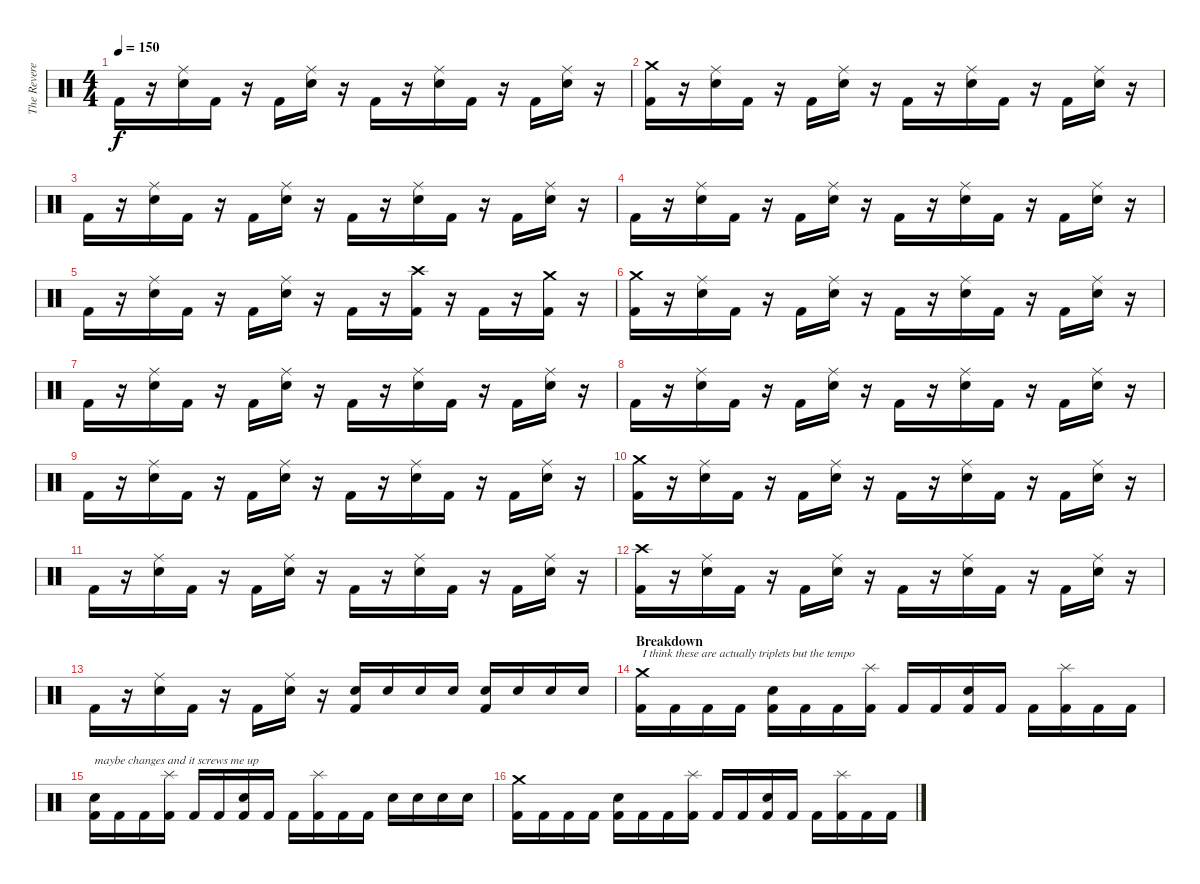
\track ("The Reverend" "The Revere") {instrument percussion}
\staff {score}
\articulation defaults
\ts (4 4)
\tempo 150
\clef neutral
\ks c "Kick (hit) 2".16{dy f}
r.16 ("Ride (middle)" "Electric Snare (hit)").16 "Kick (hit) 2".16 r.16 "Kick (hit) 2".16 ("Ride (middle)" "Electric Snare (hit)").16 r.16 "Kick (hit) 2".16 r.16 ("Ride (middle)" "Electric Snare (hit)").16 "Kick (hit) 2".16 r.16 "Kick (hit) 2".16 ("Ride (middle)" "Electric Snare (hit)").16 r.16 |
("Crash medium (hit)" "Kick (hit) 2").16 r.16 ("Ride (middle)" "Electric Snare (hit)").16 "Kick (hit) 2".16 r.16 "Kick (hit) 2".16 ("Ride (middle)" "Electric Snare (hit)").16 r.16 "Kick (hit) 2".16 r.16 ("Ride (middle)" "Electric Snare (hit)").16 "Kick (hit) 2".16 r.16 "Kick (hit) 2".16 ("Ride (middle)" "Electric Snare (hit)").16 r.16 |
"Kick (hit) 2".16 r.16 ("Ride (middle)" "Electric Snare (hit)").16 "Kick (hit) 2".16 r.16 "Kick (hit) 2".16 ("Ride (middle)" "Electric Snare (hit)").16 r.16 "Kick (hit) 2".16 r.16 ("Ride (middle)" "Electric Snare (hit)").16 "Kick (hit) 2".16 r.16 "Kick (hit) 2".16 ("Ride (middle)" "Electric Snare (hit)").16 r.16 |
"Kick (hit) 2".16 r.16 ("Ride (middle)" "Electric Snare (hit)").16 "Kick (hit) 2".16 r.16 "Kick (hit) 2".16 ("Ride (middle)" "Electric Snare (hit)").16 r.16 "Kick (hit) 2".16 r.16 ("Ride (middle)" "Electric Snare (hit)").16 "Kick (hit) 2".16 r.16 "Kick (hit) 2".16 ("Ride (middle)" "Electric Snare (hit)").16 r.16 |
"Kick (hit) 2".16 r.16 ("Ride (middle)" "Electric Snare (hit)").16 "Kick (hit) 2".16 r.16 "Kick (hit) 2".16 ("Ride (middle)" "Electric Snare (hit)").16 r.16 "Kick (hit) 2".16 r.16 ("Crash high (hit)" "Kick (hit) 2").16 r.16 "Kick (hit) 2".16 r.16 ("Crash medium (hit)" "Kick (hit) 2").16 r.16 |
("Crash medium (hit)" "Kick (hit) 2").16 r.16 ("Ride (middle)" "Electric Snare (hit)").16 "Kick (hit) 2".16 r.16 "Kick (hit) 2".16 ("Ride (middle)" "Electric Snare (hit)").16 r.16 "Kick (hit) 2".16 r.16 ("Ride (middle)" "Electric Snare (hit)").16 "Kick (hit) 2".16 r.16 "Kick (hit) 2".16 ("Ride (middle)" "Electric Snare (hit)").16 r.16 |
"Kick (hit) 2".16 r.16 ("Ride (middle)" "Electric Snare (hit)").16 "Kick (hit) 2".16 r.16 "Kick (hit) 2".16 ("Ride (middle)" "Electric Snare (hit)").16 r.16 "Kick (hit) 2".16 r.16 ("Ride (middle)" "Electric Snare (hit)").16 "Kick (hit) 2".16 r.16 "Kick (hit) 2".16 ("Ride (middle)" "Electric Snare (hit)").16 r.16 |
"Kick (hit) 2".16 r.16 ("Ride (middle)" "Electric Snare (hit)").16 "Kick (hit) 2".16 r.16 "Kick (hit) 2".16 ("Ride (middle)" "Electric Snare (hit)").16 r.16 "Kick (hit) 2".16 r.16 ("Ride (middle)" "Electric Snare (hit)").16 "Kick (hit) 2".16 r.16 "Kick (hit) 2".16 ("Ride (middle)" "Electric Snare (hit)").16 r.16 |
"Kick (hit) 2".16 r.16 ("Ride (middle)" "Electric Snare (hit)").16 "Kick (hit) 2".16 r.16 "Kick (hit) 2".16 ("Ride (middle)" "Electric Snare (hit)").16 r.16 "Kick (hit) 2".16 r.16 ("Ride (middle)" "Electric Snare (hit)").16 "Kick (hit) 2".16 r.16 "Kick (hit) 2".16 ("Ride (middle)" "Electric Snare (hit)").16 r.16 |
("Crash medium (hit)" "Kick (hit) 2").16 r.16 ("Ride (middle)" "Electric Snare (hit)").16 "Kick (hit) 2".16 r.16 "Kick (hit) 2".16 ("Ride (middle)" "Electric Snare (hit)").16 r.16 "Kick (hit) 2".16 r.16 ("Ride (middle)" "Electric Snare (hit)").16 "Kick (hit) 2".16 r.16 "Kick (hit) 2".16 ("Ride (middle)" "Electric Snare (hit)").16 r.16 |
"Kick (hit) 2".16 r.16 ("Ride (middle)" "Electric Snare (hit)").16 "Kick (hit) 2".16 r.16 "Kick (hit) 2".16 ("Ride (middle)" "Electric Snare (hit)").16 r.16 "Kick (hit) 2".16 r.16 ("Ride (middle)" "Electric Snare (hit)").16 "Kick (hit) 2".16 r.16 "Kick (hit) 2".16 ("Ride (middle)" "Electric Snare (hit)").16 r.16 |
("Crash high (hit)" "Kick (hit) 2").16 r.16 ("Ride (middle)" "Electric Snare (hit)").16 "Kick (hit) 2".16 r.16 "Kick (hit) 2".16 ("Ride (middle)" "Electric Snare (hit)").16 r.16 "Kick (hit) 2".16 r.16 ("Ride (middle)" "Electric Snare (hit)").16 "Kick (hit) 2".16 r.16 "Kick (hit) 2".16 ("Ride (middle)" "Electric Snare (hit)").16 r.16 |
"Kick (hit) 2".16 r.16 ("Ride (middle)" "Electric Snare (hit)").16 "Kick (hit) 2".16 r.16 "Kick (hit) 2".16 ("Ride (middle)" "Electric Snare (hit)").16 r.16 ("Electric Snare (hit)" "Kick (hit) 2").16 "Electric Snare (hit)".16 "Electric Snare (hit)".16 "Electric Snare (hit)".16 ("Electric Snare (hit)" "Kick (hit) 2").16 "Electric Snare (hit)".16 "Electric Snare (hit)".16 "Electric Snare (hit)".16 |
\section ("" "Breakdown")
("Crash medium (hit)" "Kick (hit) 2").16{txt "I think these are actually triplets but the tempo "} "Kick (hit) 2".16 "Kick (hit) 2".16 "Kick (hit) 2".16 ("Electric Snare (hit)" "Kick (hit) 2").16 "Kick (hit) 2".16 "Kick (hit) 2".16 ("Splash (hit)" "Kick (hit) 2").16 "Kick (hit) 2".16 "Kick (hit) 2".16 ("Electric Snare (hit)" "Kick (hit) 2").16 "Kick (hit) 2".16 "Kick (hit) 2".16 ("Splash (hit)" "Kick (hit) 2").16 "Kick (hit) 2".16 "Kick (hit) 2".16 |
("Electric Snare (hit)" "Kick (hit) 2").16{txt "maybe changes and it screws me up"} "Kick (hit) 2".16 "Kick (hit) 2".16 ("Splash (hit)" "Kick (hit) 2").16 "Kick (hit) 2".16 "Kick (hit) 2".16 ("Electric Snare (hit)" "Kick (hit) 2").16 "Kick (hit) 2".16 "Kick (hit) 2".16 ("Splash (hit)" "Kick (hit) 2").16 "Kick (hit) 2".16 "Kick (hit) 2".16 "Electric Snare (hit)".16 "Electric Snare (hit)".16 "Electric Snare (hit)".16 "Electric Snare (hit)".16 |
("Crash medium (hit)" "Kick (hit) 2").16 "Kick (hit) 2".16 "Kick (hit) 2".16 "Kick (hit) 2".16 ("Electric Snare (hit)" "Kick (hit) 2").16 "Kick (hit) 2".16 "Kick (hit) 2".16 ("Splash (hit)" "Kick (hit) 2").16 "Kick (hit) 2".16 "Kick (hit) 2".16 ("Electric Snare (hit)" "Kick (hit) 2").16 "Kick (hit) 2".16 "Kick (hit) 2".16 ("Splash (hit)" "Kick (hit) 2").16 "Kick (hit) 2".16 "Kick (hit) 2".16
